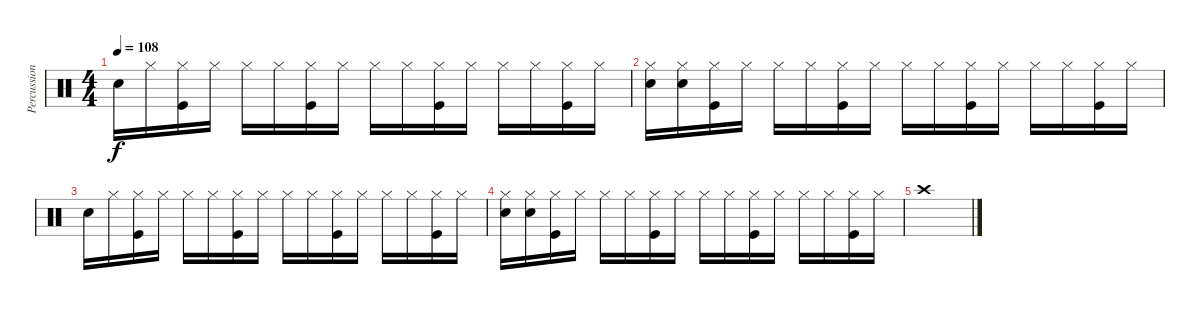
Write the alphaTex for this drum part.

\track ("Percussions" "Percussion") {instrument percussion}
\staff {score}
\articulation defaults
\ts (4 4)
\tempo 108
\clef neutral
\ks c "Electric Snare (hit)".16{dy f} "Hi-Hat (closed)".16
("Hi-Hat (closed)" "Kick (hit)").16 "Hi-Hat (closed)".16 "Hi-Hat (closed)".16 "Hi-Hat (closed)".16 ("Hi-Hat (closed)" "Kick (hit)").16 "Hi-Hat (closed)".16 "Hi-Hat (closed)".16 "Hi-Hat (closed)".16 ("Hi-Hat (closed)" "Kick (hit)").16 "Hi-Hat (closed)".16 "Hi-Hat (closed)".16 "Hi-Hat (closed)".16 ("Hi-Hat (closed)" "Kick (hit)").16 "Hi-Hat (closed)".16 |
("Hi-Hat (closed)" "Electric Snare (hit)").16 ("Hi-Hat (closed)" "Electric Snare (hit)").16 ("Hi-Hat (closed)" "Kick (hit)").16 "Hi-Hat (closed)".16 "Hi-Hat (closed)".16 "Hi-Hat (closed)".16 ("Hi-Hat (closed)" "Kick (hit)").16 "Hi-Hat (closed)".16 "Hi-Hat (closed)".16 "Hi-Hat (closed)".16 ("Hi-Hat (closed)" "Kick (hit)").16 "Hi-Hat (closed)".16 "Hi-Hat (closed)".16 "Hi-Hat (closed)".16 ("Hi-Hat (closed)" "Kick (hit)").16 "Hi-Hat (closed)".16 |
"Electric Snare (hit)".16 "Hi-Hat (closed)".16 ("Hi-Hat (closed)" "Kick (hit)").16 "Hi-Hat (closed)".16 "Hi-Hat (closed)".16 "Hi-Hat (closed)".16 ("Hi-Hat (closed)" "Kick (hit)").16 "Hi-Hat (closed)".16 "Hi-Hat (closed)".16 "Hi-Hat (closed)".16 ("Hi-Hat (closed)" "Kick (hit)").16 "Hi-Hat (closed)".16 "Hi-Hat (closed)".16 "Hi-Hat (closed)".16 ("Hi-Hat (closed)" "Kick (hit)").16 "Hi-Hat (closed)".16 |
("Hi-Hat (closed)" "Electric Snare (hit)").16 ("Hi-Hat (closed)" "Electric Snare (hit)").16 ("Hi-Hat (closed)" "Kick (hit)").16 "Hi-Hat (closed)".16 "Hi-Hat (closed)".16 "Hi-Hat (closed)".16 ("Hi-Hat (closed)" "Kick (hit)").16 "Hi-Hat (closed)".16 "Hi-Hat (closed)".16 "Hi-Hat (closed)".16 ("Hi-Hat (closed)" "Kick (hit)").16 "Hi-Hat (closed)".16 "Hi-Hat (closed)".16 "Hi-Hat (closed)".16 ("Hi-Hat (closed)" "Kick (hit)").16 "Hi-Hat (closed)".16 |
"Crash high (hit)".1
